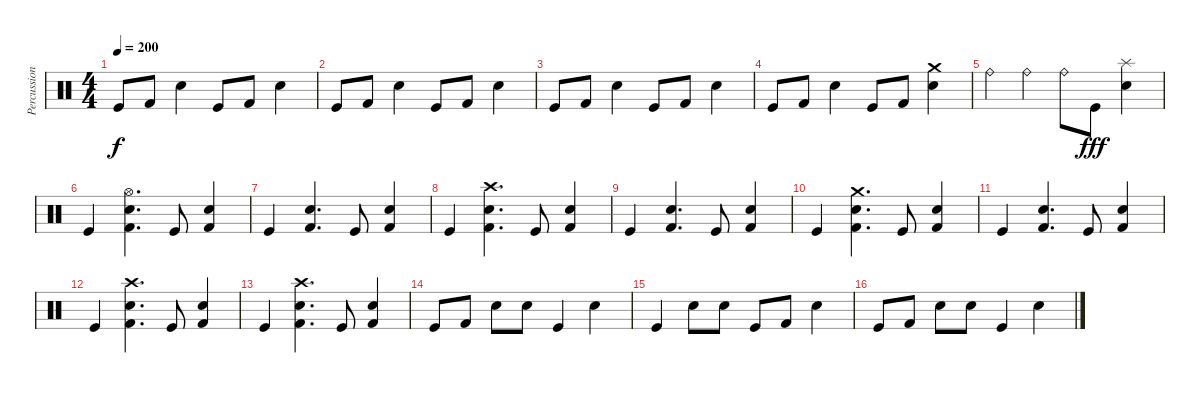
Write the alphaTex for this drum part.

\track ("Percussion" "Percussion") {instrument percussion}
\staff {score}
\articulation defaults
\ts (4 4)
\tempo 200
\clef neutral
\ks c "Kick (hit)".8{dy f} "Kick (hit) 2".8 "Snare (hit) 2".4 "Kick (hit)".8 "Kick (hit) 2".8 "Snare (hit) 2".4
|
"Kick (hit)".8 "Kick (hit) 2".8 "Snare (hit) 2".4 "Kick (hit)".8 "Kick (hit) 2".8 "Snare (hit) 2".4 |
"Kick (hit)".8 "Kick (hit) 2".8 "Snare (hit) 2".4 "Kick (hit)".8 "Kick (hit) 2".8 "Snare (hit) 2".4 |
"Kick (hit)".8 "Kick (hit) 2".8 "Snare (hit) 2".4 "Kick (hit)".8 "Kick (hit) 2".8 ("Crash medium (hit)" "Snare (hit) 2").4 |
"Ride (bell)".4 "Ride (bell)".4 "Ride (bell)".8 "Kick (hit)".8{dy fff} ("Splash (hit)" "Snare (hit) 2").4 |
"Kick (hit)".4 ("Hi-Hat (open)" "Snare (hit) 2" "Kick (hit) 2").4{d} "Kick (hit)".8 ("Snare (hit) 2" "Kick (hit) 2").4 |
"Kick (hit)".4 ("Snare (hit) 2" "Kick (hit) 2").4{d} "Kick (hit)".8 ("Snare (hit) 2" "Kick (hit) 2").4 |
"Kick (hit)".4 ("Crash high (hit)" "Snare (hit) 2" "Kick (hit) 2").4{d} "Kick (hit)".8 ("Snare (hit) 2" "Kick (hit) 2").4 |
"Kick (hit)".4 ("Snare (hit) 2" "Kick (hit) 2").4{d} "Kick (hit)".8 ("Snare (hit) 2" "Kick (hit) 2").4 |
"Kick (hit)".4 ("Crash medium (hit)" "Snare (hit) 2" "Kick (hit) 2").4{d} "Kick (hit)".8 ("Snare (hit) 2" "Kick (hit) 2").4 |
"Kick (hit)".4 ("Snare (hit) 2" "Kick (hit) 2").4{d} "Kick (hit)".8 ("Snare (hit) 2" "Kick (hit) 2").4 |
"Kick (hit)".4 ("Crash high (hit)" "Snare (hit) 2" "Kick (hit) 2").4{d} "Kick (hit)".8 ("Snare (hit) 2" "Kick (hit) 2").4 |
"Kick (hit)".4 ("Crash high (hit)" "Snare (hit) 2" "Kick (hit) 2").4{d} "Kick (hit)".8 ("Snare (hit) 2" "Kick (hit) 2").4 |
"Kick (hit)".8 "Kick (hit) 2".8 "Snare (hit) 2".8 "Snare (hit) 2".8 "Kick (hit)".4 "Snare (hit) 2".4 |
"Kick (hit)".4 "Snare (hit) 2".8 "Snare (hit) 2".8 "Kick (hit)".8 "Kick (hit) 2".8 "Snare (hit) 2".4 |
"Kick (hit)".8 "Kick (hit) 2".8 "Snare (hit) 2".8 "Snare (hit) 2".8 "Kick (hit)".4 "Snare (hit) 2".4
